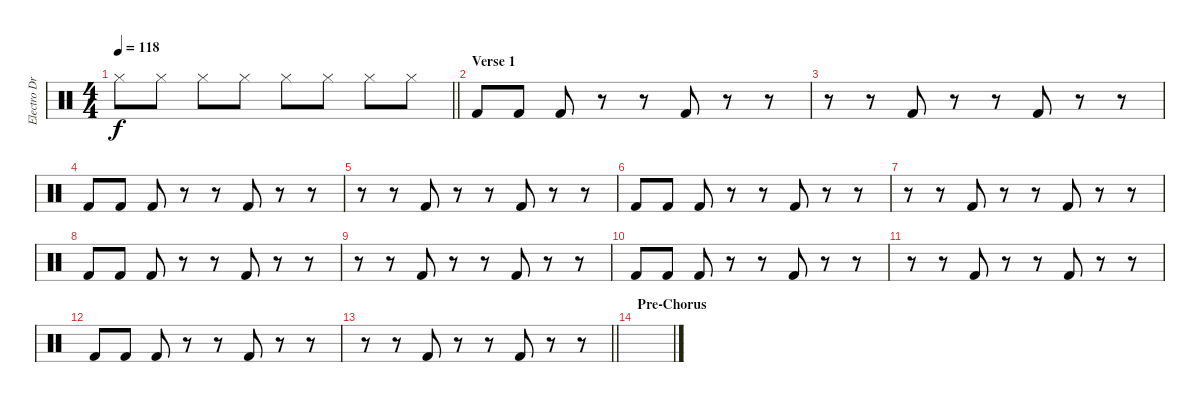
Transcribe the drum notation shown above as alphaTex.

\track ("Electro Drums" "Electro Dr") {instrument percussion}
\staff {score}
\articulation defaults
\ts (4 4)
\tempo 118
\clef neutral
\barLineRight lightlight
\ks c "Hi-Hat (closed)".8{dy f} "Hi-Hat (closed)".8 "Hi-Hat (closed)".8 "Hi-Hat (closed)".8 "Hi-Hat (closed)".8 "Hi-Hat (closed)".8 "Hi-Hat (closed)".8 "Hi-Hat (closed)".8
|
\section ("" "Verse 1")
"Kick (hit) 2".8{volume 16} "Kick (hit) 2".8 "Kick (hit) 2".8 r.8 r.8 "Kick (hit) 2".8 r.8 r.8 |
r.8 r.8 "Kick (hit) 2".8 r.8 r.8 "Kick (hit) 2".8 r.8 r.8 |
"Kick (hit) 2".8 "Kick (hit) 2".8 "Kick (hit) 2".8 r.8 r.8 "Kick (hit) 2".8 r.8 r.8 |
r.8 r.8 "Kick (hit) 2".8 r.8 r.8 "Kick (hit) 2".8 r.8 r.8 |
"Kick (hit) 2".8 "Kick (hit) 2".8 "Kick (hit) 2".8 r.8 r.8 "Kick (hit) 2".8 r.8 r.8 |
r.8 r.8 "Kick (hit) 2".8 r.8 r.8 "Kick (hit) 2".8 r.8 r.8 |
"Kick (hit) 2".8 "Kick (hit) 2".8 "Kick (hit) 2".8 r.8 r.8 "Kick (hit) 2".8 r.8 r.8 |
r.8 r.8 "Kick (hit) 2".8 r.8 r.8 "Kick (hit) 2".8 r.8 r.8 |
"Kick (hit) 2".8 "Kick (hit) 2".8 "Kick (hit) 2".8 r.8 r.8 "Kick (hit) 2".8 r.8 r.8 |
r.8 r.8 "Kick (hit) 2".8 r.8 r.8 "Kick (hit) 2".8 r.8 r.8 |
"Kick (hit) 2".8 "Kick (hit) 2".8 "Kick (hit) 2".8 r.8 r.8 "Kick (hit) 2".8 r.8 r.8 |
\barLineRight lightlight
r.8 r.8 "Kick (hit) 2".8 r.8 r.8 "Kick (hit) 2".8 r.8 r.8 |
\section ("" "Pre-Chorus")
